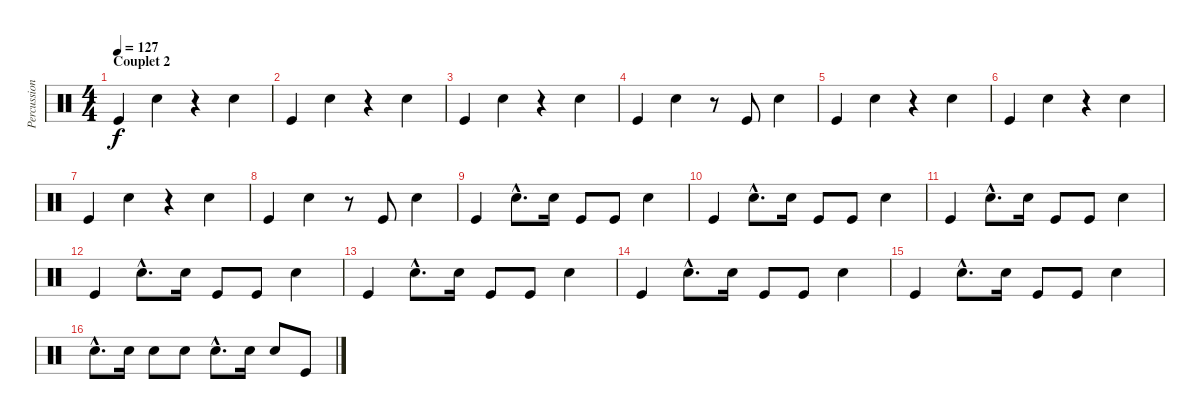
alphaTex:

\track ("Percussions" "Percussion") {instrument percussion}
\staff {score}
\articulation defaults
\ts (4 4)
\section ("" "Couplet 2")
\tempo 127
\clef neutral
\ks c "Kick (hit)".4{dy f} "Electric Snare (hit)".4
r.4 "Electric Snare (hit)".4 |
"Kick (hit)".4 "Electric Snare (hit)".4 r.4 "Electric Snare (hit)".4 |
"Kick (hit)".4 "Electric Snare (hit)".4 r.4 "Electric Snare (hit)".4 |
"Kick (hit)".4 "Electric Snare (hit)".4 r.8 "Kick (hit)".8 "Electric Snare (hit)".4 |
"Kick (hit)".4 "Electric Snare (hit)".4 r.4 "Electric Snare (hit)".4 |
"Kick (hit)".4 "Electric Snare (hit)".4 r.4 "Electric Snare (hit)".4 |
"Kick (hit)".4 "Electric Snare (hit)".4 r.4 "Electric Snare (hit)".4 |
"Kick (hit)".4 "Electric Snare (hit)".4 r.8 "Kick (hit)".8 "Electric Snare (hit)".4 |
"Kick (hit)".4 "Electric Snare (hit)"{hac}.8{d} "Electric Snare (hit)".16 "Kick (hit)".8 "Kick (hit)".8 "Electric Snare (hit)".4 |
"Kick (hit)".4 "Electric Snare (hit)"{hac}.8{d} "Electric Snare (hit)".16 "Kick (hit)".8 "Kick (hit)".8 "Electric Snare (hit)".4 |
"Kick (hit)".4 "Electric Snare (hit)"{hac}.8{d} "Electric Snare (hit)".16 "Kick (hit)".8 "Kick (hit)".8 "Electric Snare (hit)".4 |
"Kick (hit)".4 "Electric Snare (hit)"{hac}.8{d} "Electric Snare (hit)".16 "Kick (hit)".8 "Kick (hit)".8 "Electric Snare (hit)".4 |
"Kick (hit)".4 "Electric Snare (hit)"{hac}.8{d} "Electric Snare (hit)".16 "Kick (hit)".8 "Kick (hit)".8 "Electric Snare (hit)".4 |
"Kick (hit)".4 "Electric Snare (hit)"{hac}.8{d} "Electric Snare (hit)".16 "Kick (hit)".8 "Kick (hit)".8 "Electric Snare (hit)".4 |
"Kick (hit)".4 "Electric Snare (hit)"{hac}.8{d} "Electric Snare (hit)".16 "Kick (hit)".8 "Kick (hit)".8 "Electric Snare (hit)".4 |
"Electric Snare (hit)"{hac}.8{d} "Electric Snare (hit)".16 "Electric Snare (hit)".8 "Electric Snare (hit)".8 "Electric Snare (hit)"{hac}.8{d} "Electric Snare (hit)".16 "Electric Snare (hit)".8 "Kick (hit)".8
